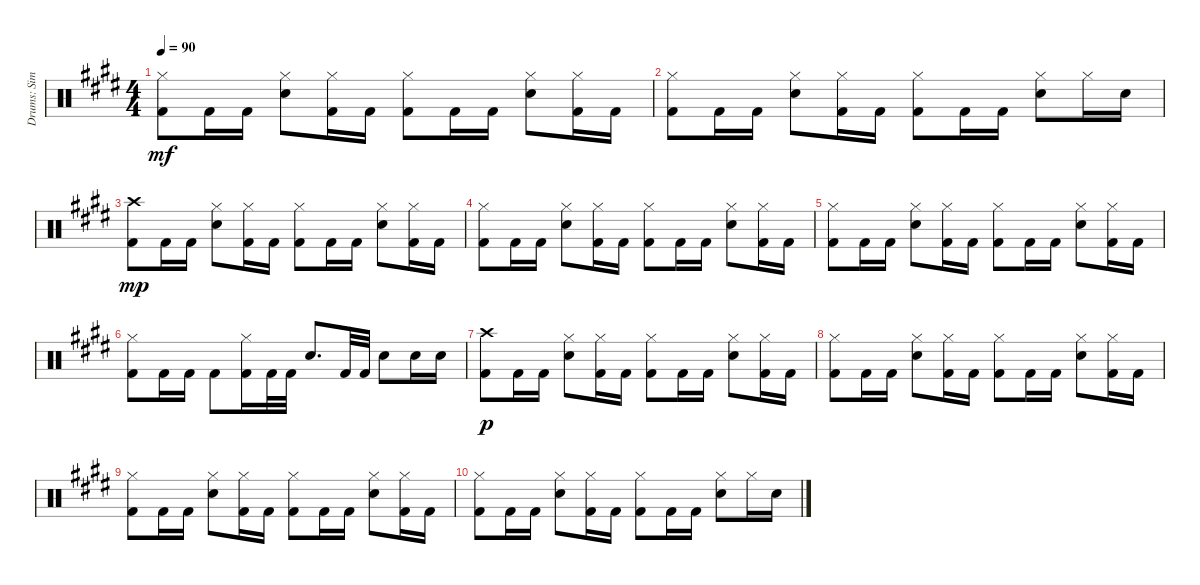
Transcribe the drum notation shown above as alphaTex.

\track ("Drums: Simon" "Drums: Sim") {instrument percussion}
\staff {score}
\articulation defaults
\ts (4 4)
\tempo 90
\clef neutral
\ks e
("Hi-Hat (closed)" "Kick (hit) 2").8{dy mf} "Kick (hit) 2".16 "Kick (hit) 2".16 ("Hi-Hat (closed)" "Electric Snare (hit)").8 ("Hi-Hat (closed)" "Kick (hit) 2").16 "Kick (hit) 2".16 ("Hi-Hat (closed)" "Kick (hit) 2").8 "Kick (hit) 2".16 "Kick (hit) 2".16 ("Hi-Hat (closed)" "Electric Snare (hit)").8 ("Hi-Hat (closed)" "Kick (hit) 2").16 "Kick (hit) 2".16 |
("Hi-Hat (closed)" "Kick (hit) 2").8 "Kick (hit) 2".16 "Kick (hit) 2".16 ("Hi-Hat (closed)" "Electric Snare (hit)").8 ("Hi-Hat (closed)" "Kick (hit) 2").16 "Kick (hit) 2".16 ("Hi-Hat (closed)" "Kick (hit) 2").8 "Kick (hit) 2".16 "Kick (hit) 2".16 ("Hi-Hat (closed)" "Electric Snare (hit)").8 "Hi-Hat (closed)".16 "Electric Snare (hit)".16 |
("Crash high (hit)" "Kick (hit) 2").8{dy mp} "Kick (hit) 2".16 "Kick (hit) 2".16 ("Hi-Hat (closed)" "Electric Snare (hit)").8 ("Hi-Hat (closed)" "Kick (hit) 2").16 "Kick (hit) 2".16 ("Hi-Hat (closed)" "Kick (hit) 2").8 "Kick (hit) 2".16 "Kick (hit) 2".16 ("Hi-Hat (closed)" "Electric Snare (hit)").8 ("Hi-Hat (closed)" "Kick (hit) 2").16 "Kick (hit) 2".16 |
("Hi-Hat (closed)" "Kick (hit) 2").8 "Kick (hit) 2".16 "Kick (hit) 2".16 ("Hi-Hat (closed)" "Electric Snare (hit)").8 ("Hi-Hat (closed)" "Kick (hit) 2").16 "Kick (hit) 2".16 ("Hi-Hat (closed)" "Kick (hit) 2").8 "Kick (hit) 2".16 "Kick (hit) 2".16 ("Hi-Hat (closed)" "Electric Snare (hit)").8 ("Hi-Hat (closed)" "Kick (hit) 2").16 "Kick (hit) 2".16 |
("Hi-Hat (closed)" "Kick (hit) 2").8 "Kick (hit) 2".16 "Kick (hit) 2".16 ("Hi-Hat (closed)" "Electric Snare (hit)").8 ("Hi-Hat (closed)" "Kick (hit) 2").16 "Kick (hit) 2".16 ("Hi-Hat (closed)" "Kick (hit) 2").8 "Kick (hit) 2".16 "Kick (hit) 2".16 ("Hi-Hat (closed)" "Electric Snare (hit)").8 ("Hi-Hat (closed)" "Kick (hit) 2").16 "Kick (hit) 2".16 |
("Hi-Hat (closed)" "Kick (hit) 2").8 "Kick (hit) 2".16 "Kick (hit) 2".16 "Kick (hit) 2".8 ("Hi-Hat (closed)" "Kick (hit) 2").16 "Kick (hit) 2".32 "Kick (hit) 2".32 "Electric Snare (hit)".8{d} "Kick (hit) 2".32 "Kick (hit) 2".32 "Electric Snare (hit)".8 "Electric Snare (hit)".16 "Electric Snare (hit)".16 |
("Crash high (hit)" "Kick (hit) 2").8{dy p} "Kick (hit) 2".16 "Kick (hit) 2".16 ("Hi-Hat (closed)" "Electric Snare (hit)").8 ("Hi-Hat (closed)" "Kick (hit) 2").16 "Kick (hit) 2".16 ("Hi-Hat (closed)" "Kick (hit) 2").8 "Kick (hit) 2".16 "Kick (hit) 2".16 ("Hi-Hat (closed)" "Electric Snare (hit)").8 ("Hi-Hat (closed)" "Kick (hit) 2").16 "Kick (hit) 2".16 |
("Hi-Hat (closed)" "Kick (hit) 2").8 "Kick (hit) 2".16 "Kick (hit) 2".16 ("Hi-Hat (closed)" "Electric Snare (hit)").8 ("Hi-Hat (closed)" "Kick (hit) 2").16 "Kick (hit) 2".16 ("Hi-Hat (closed)" "Kick (hit) 2").8 "Kick (hit) 2".16 "Kick (hit) 2".16 ("Hi-Hat (closed)" "Electric Snare (hit)").8 ("Hi-Hat (closed)" "Kick (hit) 2").16 "Kick (hit) 2".16 |
("Hi-Hat (closed)" "Kick (hit) 2").8 "Kick (hit) 2".16 "Kick (hit) 2".16 ("Hi-Hat (closed)" "Electric Snare (hit)").8 ("Hi-Hat (closed)" "Kick (hit) 2").16 "Kick (hit) 2".16 ("Hi-Hat (closed)" "Kick (hit) 2").8 "Kick (hit) 2".16 "Kick (hit) 2".16 ("Hi-Hat (closed)" "Electric Snare (hit)").8 ("Hi-Hat (closed)" "Kick (hit) 2").16 "Kick (hit) 2".16 |
("Hi-Hat (closed)" "Kick (hit) 2").8 "Kick (hit) 2".16 "Kick (hit) 2".16 ("Hi-Hat (closed)" "Electric Snare (hit)").8 ("Hi-Hat (closed)" "Kick (hit) 2").16 "Kick (hit) 2".16 ("Hi-Hat (closed)" "Kick (hit) 2").8 "Kick (hit) 2".16 "Kick (hit) 2".16 ("Hi-Hat (closed)" "Electric Snare (hit)").8 "Hi-Hat (closed)".16 "Electric Snare (hit)".16
